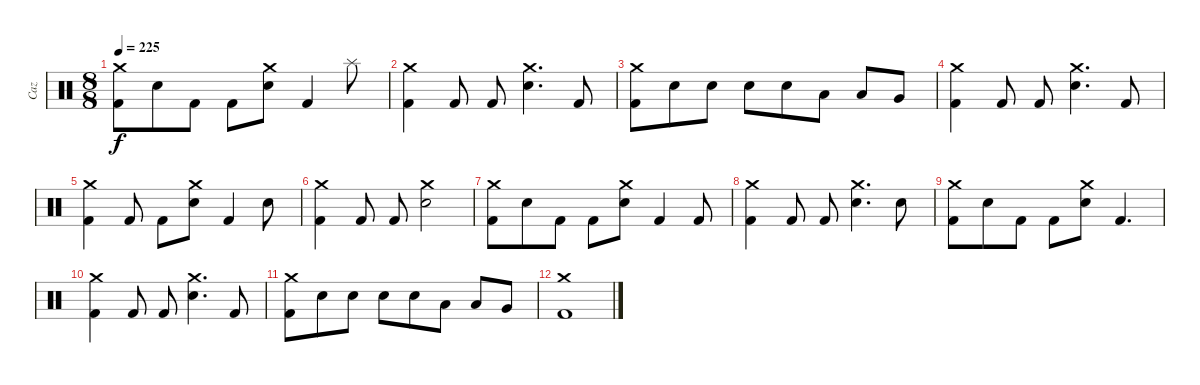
\track ("Caz" "Caz") {instrument percussion}
\staff {score}
\articulation defaults
\ts (8 8)
\tempo 225
\clef neutral
\ks c
("Crash medium (hit)" "Kick (hit) 2").8{dy f} "Electric Snare (hit)".8 "Kick (hit) 2".8 "Kick (hit) 2".8 ("Crash medium (hit)" "Electric Snare (hit)").8 "Kick (hit) 2".4 "Splash (hit)".8 |
("Crash medium (hit)" "Kick (hit) 2").4 "Kick (hit) 2".8 "Kick (hit) 2".8 ("Crash medium (hit)" "Electric Snare (hit)").4{d} "Kick (hit) 2".8 |
("Crash medium (hit)" "Kick (hit) 2").8 "Electric Snare (hit)".8 "Electric Snare (hit)".8 "Electric Snare (hit)".8 "Electric Snare (hit)".8 "Low Tom (hit)".8 "Low Tom (hit)".8 "Very Low Tom (hit)".8 |
("Crash medium (hit)" "Kick (hit) 2").4 "Kick (hit) 2".8 "Kick (hit) 2".8 ("Crash medium (hit)" "Electric Snare (hit)").4{d} "Kick (hit) 2".8 |
("Crash medium (hit)" "Kick (hit) 2").4 "Kick (hit) 2".8 "Kick (hit) 2".8 ("Crash medium (hit)" "Electric Snare (hit)").8 "Kick (hit) 2".4 "Electric Snare (hit)".8 |
("Crash medium (hit)" "Kick (hit) 2").4 "Kick (hit) 2".8 "Kick (hit) 2".8 ("Crash medium (hit)" "Electric Snare (hit)").2 |
("Crash medium (hit)" "Kick (hit) 2").8 "Electric Snare (hit)".8 "Kick (hit) 2".8 "Kick (hit) 2".8 ("Crash medium (hit)" "Electric Snare (hit)").8 "Kick (hit) 2".4 "Kick (hit) 2".8 |
("Crash medium (hit)" "Kick (hit) 2").4 "Kick (hit) 2".8 "Kick (hit) 2".8 ("Crash medium (hit)" "Electric Snare (hit)").4{d} "Electric Snare (hit)".8 |
("Crash medium (hit)" "Kick (hit) 2").8 "Electric Snare (hit)".8 "Kick (hit) 2".8 "Kick (hit) 2".8 ("Crash medium (hit)" "Electric Snare (hit)").8 "Kick (hit) 2".4{d} |
("Crash medium (hit)" "Kick (hit) 2").4 "Kick (hit) 2".8 "Kick (hit) 2".8 ("Crash medium (hit)" "Electric Snare (hit)").4{d} "Kick (hit) 2".8 |
("Crash medium (hit)" "Kick (hit) 2").8 "Electric Snare (hit)".8 "Electric Snare (hit)".8 "Electric Snare (hit)".8 "Electric Snare (hit)".8 "Low Tom (hit)".8 "Low Tom (hit)".8 "Very Low Tom (hit)".8 |
("Crash medium (hit)" "Kick (hit) 2").1
